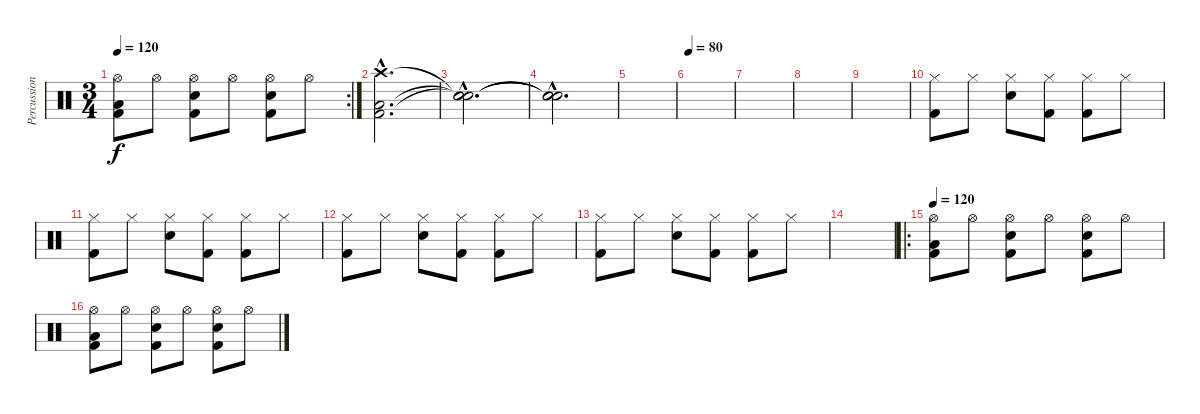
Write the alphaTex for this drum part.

\track ("Percussions" "Percussion") {instrument percussion}
\staff {score}
\articulation defaults
\rc 2
\ts (3 4)
\tempo 120
\clef neutral
\ks c
("Hi-Hat (open)" "Low Tom (hit)" "Kick (hit) 2").8{dy f} "Hi-Hat (open)".8 ("Hi-Hat (open)" "Snare (hit) 2" "Kick (hit) 2").8 "Hi-Hat (open)".8 ("Hi-Hat (open)" "Snare (hit) 2" "Kick (hit) 2").8 "Hi-Hat (open)".8 |
("Crash high (hit)"{hac} "Low Tom (hit)"{hac} "Kick (hit) 2"{hac}).2{d} |
("Snare (hit)"{hac t} "Snare (hit)"{hac t} "Snare (hit)"{hac t}).2{d} |
("Snare (hit)"{hac t} "Snare (hit)"{hac t} "Snare (hit)"{hac t}).2{d} |
|
\tempo 80
|
|
|
|
("Hi-Hat (closed)" "Kick (hit) 2").8 "Hi-Hat (closed)".8 ("Hi-Hat (closed)" "Snare (hit) 2").8 ("Hi-Hat (closed)" "Kick (hit) 2").8 ("Hi-Hat (closed)" "Kick (hit) 2").8 "Hi-Hat (closed)".8 |
("Hi-Hat (closed)" "Kick (hit) 2").8 "Hi-Hat (closed)".8 ("Hi-Hat (closed)" "Snare (hit) 2").8 ("Hi-Hat (closed)" "Kick (hit) 2").8 ("Hi-Hat (closed)" "Kick (hit) 2").8 "Hi-Hat (closed)".8 |
("Hi-Hat (closed)" "Kick (hit) 2").8 "Hi-Hat (closed)".8 ("Hi-Hat (closed)" "Snare (hit) 2").8 ("Hi-Hat (closed)" "Kick (hit) 2").8 ("Hi-Hat (closed)" "Kick (hit) 2").8 "Hi-Hat (closed)".8 |
("Hi-Hat (closed)" "Kick (hit) 2").8 "Hi-Hat (closed)".8 ("Hi-Hat (closed)" "Snare (hit) 2").8 ("Hi-Hat (closed)" "Kick (hit) 2").8 ("Hi-Hat (closed)" "Kick (hit) 2").8 "Hi-Hat (closed)".8 |
|
\ro
\tempo 120
("Hi-Hat (open)" "Low Tom (hit)" "Kick (hit) 2").8 "Hi-Hat (open)".8 ("Hi-Hat (open)" "Snare (hit) 2" "Kick (hit) 2").8 "Hi-Hat (open)".8 ("Hi-Hat (open)" "Snare (hit) 2" "Kick (hit) 2").8 "Hi-Hat (open)".8 |
("Hi-Hat (open)" "Low Tom (hit)" "Kick (hit) 2").8 "Hi-Hat (open)".8 ("Hi-Hat (open)" "Snare (hit) 2" "Kick (hit) 2").8 "Hi-Hat (open)".8 ("Hi-Hat (open)" "Snare (hit) 2" "Kick (hit) 2").8 "Hi-Hat (open)".8
